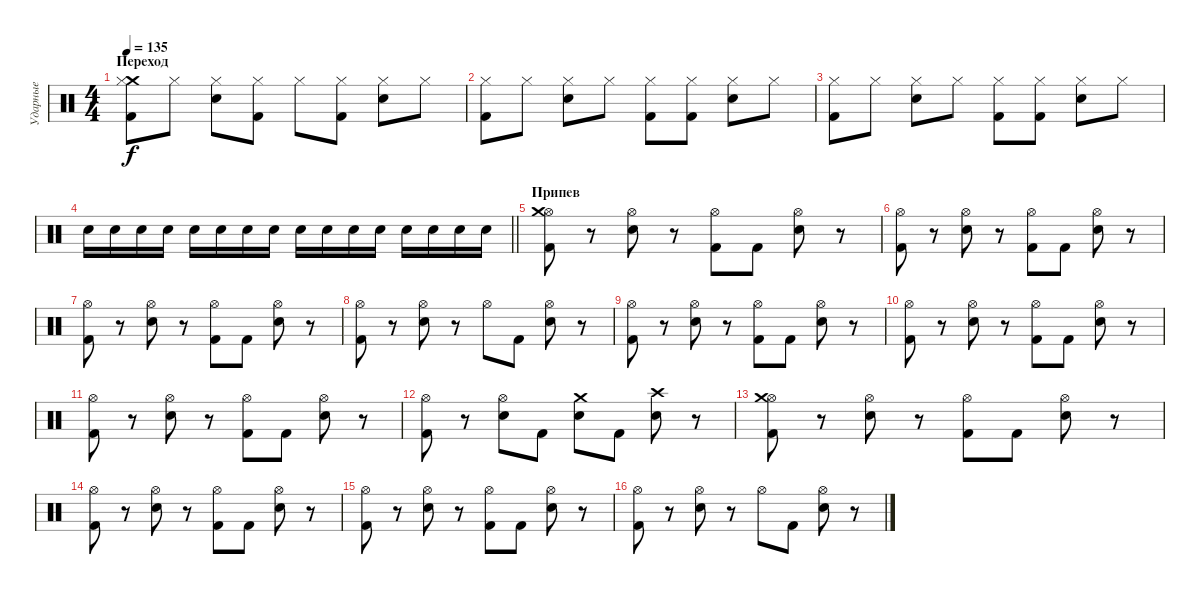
\track ("Ударные" "Ударные") {instrument percussion}
\staff {score}
\articulation defaults
\ts (4 4)
\section ("" "Переход")
\tempo 135
\clef neutral
\ks c
("Crash medium (hit)" "Hi-Hat (closed)" "Kick (hit) 2").8{dy f} "Hi-Hat (closed)".8 ("Hi-Hat (closed)" "Electric Snare (hit)").8 ("Hi-Hat (closed)" "Kick (hit) 2").8 "Hi-Hat (closed)".8 ("Hi-Hat (closed)" "Kick (hit) 2").8 ("Hi-Hat (closed)" "Electric Snare (hit)").8 "Hi-Hat (closed)".8 |
("Hi-Hat (closed)" "Kick (hit) 2").8 "Hi-Hat (closed)".8 ("Hi-Hat (closed)" "Electric Snare (hit)").8 "Hi-Hat (closed)".8 ("Hi-Hat (closed)" "Kick (hit) 2").8 ("Hi-Hat (closed)" "Kick (hit) 2").8 ("Hi-Hat (closed)" "Electric Snare (hit)").8 "Hi-Hat (closed)".8 |
("Hi-Hat (closed)" "Kick (hit) 2").8 "Hi-Hat (closed)".8 ("Hi-Hat (closed)" "Electric Snare (hit)").8 "Hi-Hat (closed)".8 ("Hi-Hat (closed)" "Kick (hit) 2").8 ("Hi-Hat (closed)" "Kick (hit) 2").8 ("Hi-Hat (closed)" "Electric Snare (hit)").8 "Hi-Hat (closed)".8 |
\barLineRight lightlight "Electric Snare (hit)".16 "Electric Snare (hit)".16 "Electric Snare (hit)".16 "Electric Snare (hit)".16 "Electric Snare (hit)".16 "Electric Snare (hit)".16 "Electric Snare (hit)".16 "Electric Snare (hit)".16 "Electric Snare (hit)".16 "Electric Snare (hit)".16 "Electric Snare (hit)".16 "Electric Snare (hit)".16 "Electric Snare (hit)".16 "Electric Snare (hit)".16 "Electric Snare (hit)".16 "Electric Snare (hit)".16
|
\section ("" "Припев")
("Hi-Hat (open)" "Crash medium (hit)" "Kick (hit) 2").8 r.8 ("Hi-Hat (open)" "Electric Snare (hit)").8 r.8 ("Hi-Hat (open)" "Kick (hit) 2").8 "Kick (hit) 2".8 ("Hi-Hat (open)" "Electric Snare (hit)").8 r.8 |
("Hi-Hat (open)" "Kick (hit) 2").8 r.8 ("Hi-Hat (open)" "Electric Snare (hit)").8 r.8 ("Hi-Hat (open)" "Kick (hit) 2").8 "Kick (hit) 2".8 ("Hi-Hat (open)" "Electric Snare (hit)").8 r.8 |
("Hi-Hat (open)" "Kick (hit) 2").8 r.8 ("Hi-Hat (open)" "Electric Snare (hit)").8 r.8 ("Hi-Hat (open)" "Kick (hit) 2").8 "Kick (hit) 2".8 ("Hi-Hat (open)" "Electric Snare (hit)").8 r.8 |
("Hi-Hat (open)" "Kick (hit) 2").8 r.8 ("Hi-Hat (open)" "Electric Snare (hit)").8 r.8 "Hi-Hat (open)".8 "Kick (hit) 2".8 ("Hi-Hat (open)" "Electric Snare (hit)").8 r.8 |
("Hi-Hat (open)" "Kick (hit) 2").8 r.8 ("Hi-Hat (open)" "Electric Snare (hit)").8 r.8 ("Hi-Hat (open)" "Kick (hit) 2").8 "Kick (hit) 2".8 ("Hi-Hat (open)" "Electric Snare (hit)").8 r.8 |
("Hi-Hat (open)" "Kick (hit) 2").8 r.8 ("Hi-Hat (open)" "Electric Snare (hit)").8 r.8 ("Hi-Hat (open)" "Kick (hit) 2").8 "Kick (hit) 2".8 ("Hi-Hat (open)" "Electric Snare (hit)").8 r.8 |
("Hi-Hat (open)" "Kick (hit) 2").8 r.8 ("Hi-Hat (open)" "Electric Snare (hit)").8 r.8 ("Hi-Hat (open)" "Kick (hit) 2").8 "Kick (hit) 2".8 ("Hi-Hat (open)" "Electric Snare (hit)").8 r.8 |
("Hi-Hat (open)" "Kick (hit) 2").8 r.8 ("Hi-Hat (open)" "Electric Snare (hit)").8 "Kick (hit) 2".8 ("Crash medium (hit)" "Electric Snare (hit)").8 "Kick (hit) 2".8 ("Crash high (hit)" "Electric Snare (hit)").8 r.8 |
("Hi-Hat (open)" "Crash medium (hit)" "Kick (hit) 2").8 r.8 ("Hi-Hat (open)" "Electric Snare (hit)").8 r.8 ("Hi-Hat (open)" "Kick (hit) 2").8 "Kick (hit) 2".8 ("Hi-Hat (open)" "Electric Snare (hit)").8 r.8 |
("Hi-Hat (open)" "Kick (hit) 2").8 r.8 ("Hi-Hat (open)" "Electric Snare (hit)").8 r.8 ("Hi-Hat (open)" "Kick (hit) 2").8 "Kick (hit) 2".8 ("Hi-Hat (open)" "Electric Snare (hit)").8 r.8 |
("Hi-Hat (open)" "Kick (hit) 2").8 r.8 ("Hi-Hat (open)" "Electric Snare (hit)").8 r.8 ("Hi-Hat (open)" "Kick (hit) 2").8 "Kick (hit) 2".8 ("Hi-Hat (open)" "Electric Snare (hit)").8 r.8 |
("Hi-Hat (open)" "Kick (hit) 2").8 r.8 ("Hi-Hat (open)" "Electric Snare (hit)").8 r.8 "Hi-Hat (open)".8 "Kick (hit) 2".8 ("Hi-Hat (open)" "Electric Snare (hit)").8 r.8
